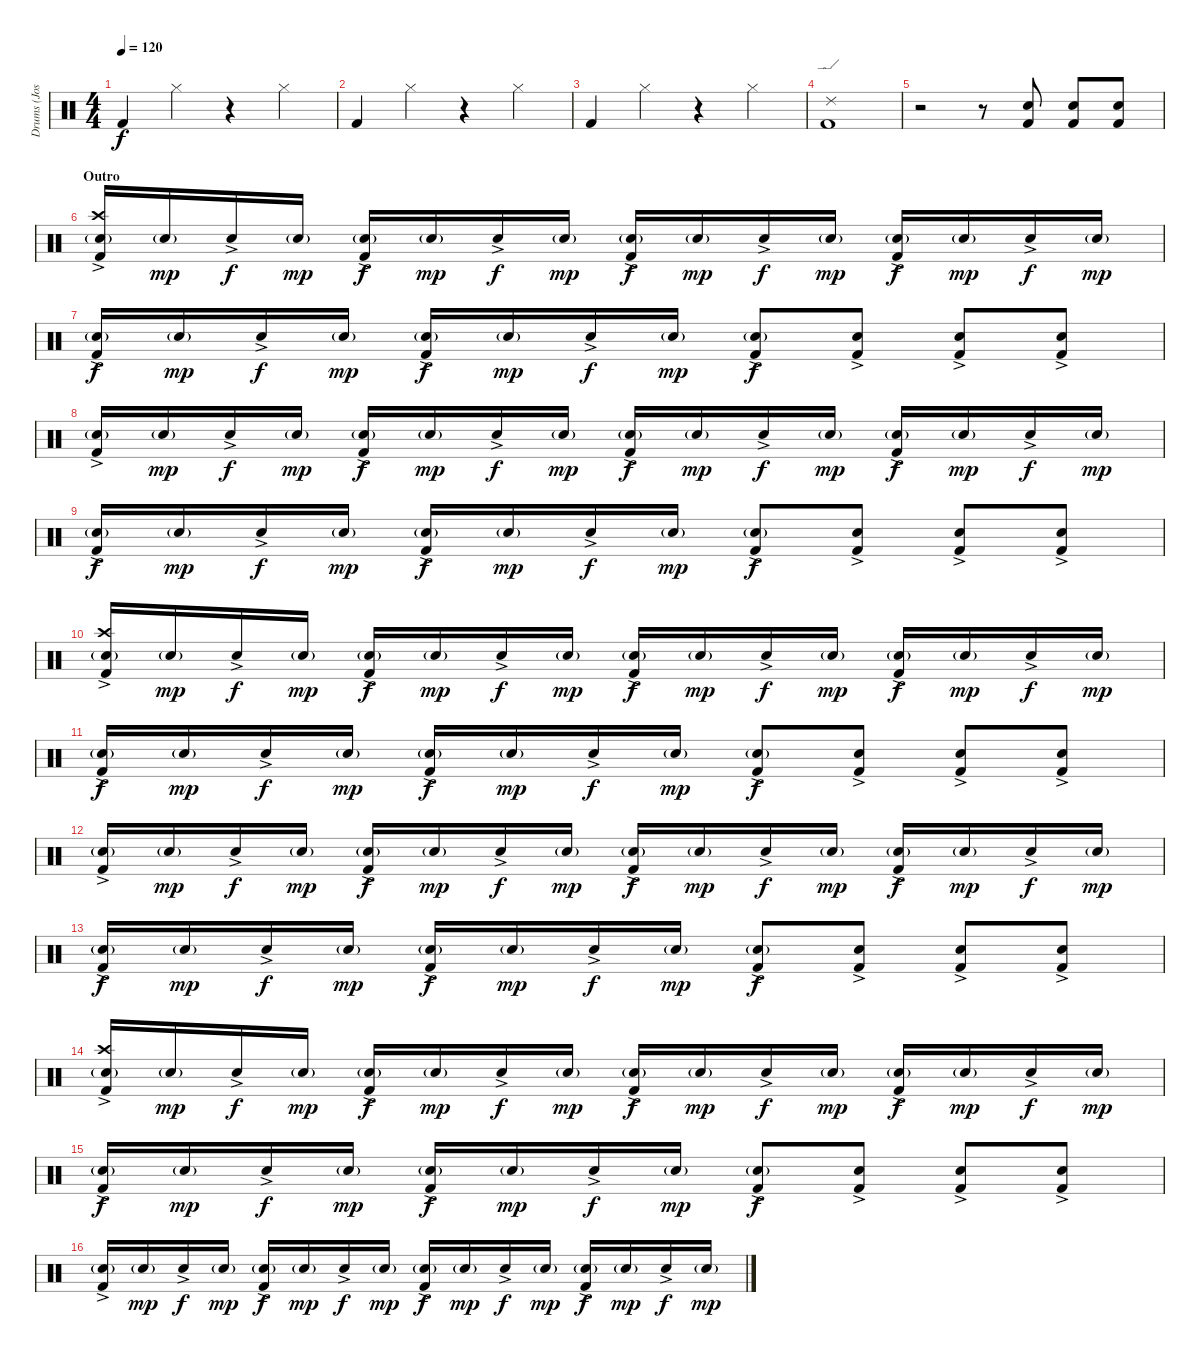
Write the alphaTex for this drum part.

\track ("Drums (Josh Dun)" "Drums (Jos") {instrument percussion}
\staff {score}
\articulation defaults
\ts (4 4)
\tempo 120
\clef neutral
\ks c "Kick (hit) 2".4{dy f} "Hi-Hat (closed)".4
r.4 "Hi-Hat (closed)".4 |
"Kick (hit) 2".4 "Hi-Hat (closed)".4 r.4 "Hi-Hat (closed)".4 |
"Kick (hit) 2".4 "Hi-Hat (closed)".4 r.4 "Hi-Hat (closed)".4 |
("Ride (edge) 2" "Kick (hit) 2").1 |
r.2 r.8 ("Electric Snare (hit)" "Kick (hit) 2").8 ("Electric Snare (hit)" "Kick (hit) 2").8 ("Electric Snare (hit)" "Kick (hit) 2").8 |
\section ("" "Outro")
("Crash high (hit)"{ac} "Snare (hit) 2"{g} "Kick (hit) 2"{ac}).16 "Snare (hit) 2"{g}.16{dy mp} "Electric Snare (hit)"{ac}.16{dy f} "Snare (hit) 2"{g}.16{dy mp} ("Snare (hit) 2"{g} "Kick (hit) 2"{ac}).16{dy f} "Snare (hit) 2"{g}.16{dy mp} "Electric Snare (hit)"{ac}.16{dy f} "Snare (hit) 2"{g}.16{dy mp} ("Snare (hit) 2"{g} "Kick (hit) 2"{ac}).16{dy f} "Snare (hit) 2"{g}.16{dy mp} "Electric Snare (hit)"{ac}.16{dy f} "Snare (hit) 2"{g}.16{dy mp} ("Snare (hit) 2"{g} "Kick (hit) 2"{ac}).16{dy f} "Snare (hit) 2"{g}.16{dy mp} "Electric Snare (hit)"{ac}.16{dy f} "Snare (hit) 2"{g}.16{dy mp} |
("Snare (hit) 2"{g} "Kick (hit) 2"{ac}).16{dy f} "Snare (hit) 2"{g}.16{dy mp} "Electric Snare (hit)"{ac}.16{dy f} "Snare (hit) 2"{g}.16{dy mp} ("Snare (hit) 2"{g} "Kick (hit) 2"{ac}).16{dy f} "Snare (hit) 2"{g}.16{dy mp} "Electric Snare (hit)"{ac}.16{dy f} "Snare (hit) 2"{g}.16{dy mp} ("Snare (hit) 2"{g} "Kick (hit) 2"{ac}).8{dy f} ("Electric Snare (hit)"{ac} "Kick (hit) 2"{ac}).8 ("Electric Snare (hit)"{ac} "Kick (hit) 2"{ac}).8 ("Electric Snare (hit)"{ac} "Kick (hit) 2"{ac}).8 |
("Snare (hit) 2"{g} "Kick (hit) 2"{ac}).16 "Snare (hit) 2"{g}.16{dy mp} "Electric Snare (hit)"{ac}.16{dy f} "Snare (hit) 2"{g}.16{dy mp} ("Snare (hit) 2"{g} "Kick (hit) 2"{ac}).16{dy f} "Snare (hit) 2"{g}.16{dy mp} "Electric Snare (hit)"{ac}.16{dy f} "Snare (hit) 2"{g}.16{dy mp} ("Snare (hit) 2"{g} "Kick (hit) 2"{ac}).16{dy f} "Snare (hit) 2"{g}.16{dy mp} "Electric Snare (hit)"{ac}.16{dy f} "Snare (hit) 2"{g}.16{dy mp} ("Snare (hit) 2"{g} "Kick (hit) 2"{ac}).16{dy f} "Snare (hit) 2"{g}.16{dy mp} "Electric Snare (hit)"{ac}.16{dy f} "Snare (hit) 2"{g}.16{dy mp} |
("Snare (hit) 2"{g} "Kick (hit) 2"{ac}).16{dy f} "Snare (hit) 2"{g}.16{dy mp} "Electric Snare (hit)"{ac}.16{dy f} "Snare (hit) 2"{g}.16{dy mp} ("Snare (hit) 2"{g} "Kick (hit) 2"{ac}).16{dy f} "Snare (hit) 2"{g}.16{dy mp} "Electric Snare (hit)"{ac}.16{dy f} "Snare (hit) 2"{g}.16{dy mp} ("Snare (hit) 2"{g} "Kick (hit) 2"{ac}).8{dy f} ("Electric Snare (hit)"{ac} "Kick (hit) 2"{ac}).8 ("Electric Snare (hit)"{ac} "Kick (hit) 2"{ac}).8 ("Electric Snare (hit)"{ac} "Kick (hit) 2"{ac}).8 |
("Crash high (hit)"{ac} "Snare (hit) 2"{g} "Kick (hit) 2"{ac}).16 "Snare (hit) 2"{g}.16{dy mp} "Electric Snare (hit)"{ac}.16{dy f} "Snare (hit) 2"{g}.16{dy mp} ("Snare (hit) 2"{g} "Kick (hit) 2"{ac}).16{dy f} "Snare (hit) 2"{g}.16{dy mp} "Electric Snare (hit)"{ac}.16{dy f} "Snare (hit) 2"{g}.16{dy mp} ("Snare (hit) 2"{g} "Kick (hit) 2"{ac}).16{dy f} "Snare (hit) 2"{g}.16{dy mp} "Electric Snare (hit)"{ac}.16{dy f} "Snare (hit) 2"{g}.16{dy mp} ("Snare (hit) 2"{g} "Kick (hit) 2"{ac}).16{dy f} "Snare (hit) 2"{g}.16{dy mp} "Electric Snare (hit)"{ac}.16{dy f} "Snare (hit) 2"{g}.16{dy mp} |
("Snare (hit) 2"{g} "Kick (hit) 2"{ac}).16{dy f} "Snare (hit) 2"{g}.16{dy mp} "Electric Snare (hit)"{ac}.16{dy f} "Snare (hit) 2"{g}.16{dy mp} ("Snare (hit) 2"{g} "Kick (hit) 2"{ac}).16{dy f} "Snare (hit) 2"{g}.16{dy mp} "Electric Snare (hit)"{ac}.16{dy f} "Snare (hit) 2"{g}.16{dy mp} ("Snare (hit) 2"{g} "Kick (hit) 2"{ac}).8{dy f} ("Electric Snare (hit)"{ac} "Kick (hit) 2"{ac}).8 ("Electric Snare (hit)"{ac} "Kick (hit) 2"{ac}).8 ("Electric Snare (hit)"{ac} "Kick (hit) 2"{ac}).8 |
("Snare (hit) 2"{g} "Kick (hit) 2"{ac}).16 "Snare (hit) 2"{g}.16{dy mp} "Electric Snare (hit)"{ac}.16{dy f} "Snare (hit) 2"{g}.16{dy mp} ("Snare (hit) 2"{g} "Kick (hit) 2"{ac}).16{dy f} "Snare (hit) 2"{g}.16{dy mp} "Electric Snare (hit)"{ac}.16{dy f} "Snare (hit) 2"{g}.16{dy mp} ("Snare (hit) 2"{g} "Kick (hit) 2"{ac}).16{dy f} "Snare (hit) 2"{g}.16{dy mp} "Electric Snare (hit)"{ac}.16{dy f} "Snare (hit) 2"{g}.16{dy mp} ("Snare (hit) 2"{g} "Kick (hit) 2"{ac}).16{dy f} "Snare (hit) 2"{g}.16{dy mp} "Electric Snare (hit)"{ac}.16{dy f} "Snare (hit) 2"{g}.16{dy mp} |
("Snare (hit) 2"{g} "Kick (hit) 2"{ac}).16{dy f} "Snare (hit) 2"{g}.16{dy mp} "Electric Snare (hit)"{ac}.16{dy f} "Snare (hit) 2"{g}.16{dy mp} ("Snare (hit) 2"{g} "Kick (hit) 2"{ac}).16{dy f} "Snare (hit) 2"{g}.16{dy mp} "Electric Snare (hit)"{ac}.16{dy f} "Snare (hit) 2"{g}.16{dy mp} ("Snare (hit) 2"{g} "Kick (hit) 2"{ac}).8{dy f} ("Electric Snare (hit)"{ac} "Kick (hit) 2"{ac}).8 ("Electric Snare (hit)"{ac} "Kick (hit) 2"{ac}).8 ("Electric Snare (hit)"{ac} "Kick (hit) 2"{ac}).8 |
("Crash high (hit)"{ac} "Snare (hit) 2"{g} "Kick (hit) 2"{ac}).16 "Snare (hit) 2"{g}.16{dy mp} "Electric Snare (hit)"{ac}.16{dy f} "Snare (hit) 2"{g}.16{dy mp} ("Snare (hit) 2"{g} "Kick (hit) 2"{ac}).16{dy f} "Snare (hit) 2"{g}.16{dy mp} "Electric Snare (hit)"{ac}.16{dy f} "Snare (hit) 2"{g}.16{dy mp} ("Snare (hit) 2"{g} "Kick (hit) 2"{ac}).16{dy f} "Snare (hit) 2"{g}.16{dy mp} "Electric Snare (hit)"{ac}.16{dy f} "Snare (hit) 2"{g}.16{dy mp} ("Snare (hit) 2"{g} "Kick (hit) 2"{ac}).16{dy f} "Snare (hit) 2"{g}.16{dy mp} "Electric Snare (hit)"{ac}.16{dy f} "Snare (hit) 2"{g}.16{dy mp} |
("Snare (hit) 2"{g} "Kick (hit) 2"{ac}).16{dy f} "Snare (hit) 2"{g}.16{dy mp} "Electric Snare (hit)"{ac}.16{dy f} "Snare (hit) 2"{g}.16{dy mp} ("Snare (hit) 2"{g} "Kick (hit) 2"{ac}).16{dy f} "Snare (hit) 2"{g}.16{dy mp} "Electric Snare (hit)"{ac}.16{dy f} "Snare (hit) 2"{g}.16{dy mp} ("Snare (hit) 2"{g} "Kick (hit) 2"{ac}).8{dy f} ("Electric Snare (hit)"{ac} "Kick (hit) 2"{ac}).8 ("Electric Snare (hit)"{ac} "Kick (hit) 2"{ac}).8 ("Electric Snare (hit)"{ac} "Kick (hit) 2"{ac}).8 |
("Snare (hit) 2"{g} "Kick (hit) 2"{ac}).16 "Snare (hit) 2"{g}.16{dy mp} "Electric Snare (hit)"{ac}.16{dy f} "Snare (hit) 2"{g}.16{dy mp} ("Snare (hit) 2"{g} "Kick (hit) 2"{ac}).16{dy f} "Snare (hit) 2"{g}.16{dy mp} "Electric Snare (hit)"{ac}.16{dy f} "Snare (hit) 2"{g}.16{dy mp} ("Snare (hit) 2"{g} "Kick (hit) 2"{ac}).16{dy f} "Snare (hit) 2"{g}.16{dy mp} "Electric Snare (hit)"{ac}.16{dy f} "Snare (hit) 2"{g}.16{dy mp} ("Snare (hit) 2"{g} "Kick (hit) 2"{ac}).16{dy f} "Snare (hit) 2"{g}.16{dy mp} "Electric Snare (hit)"{ac}.16{dy f} "Snare (hit) 2"{g}.16{dy mp}
